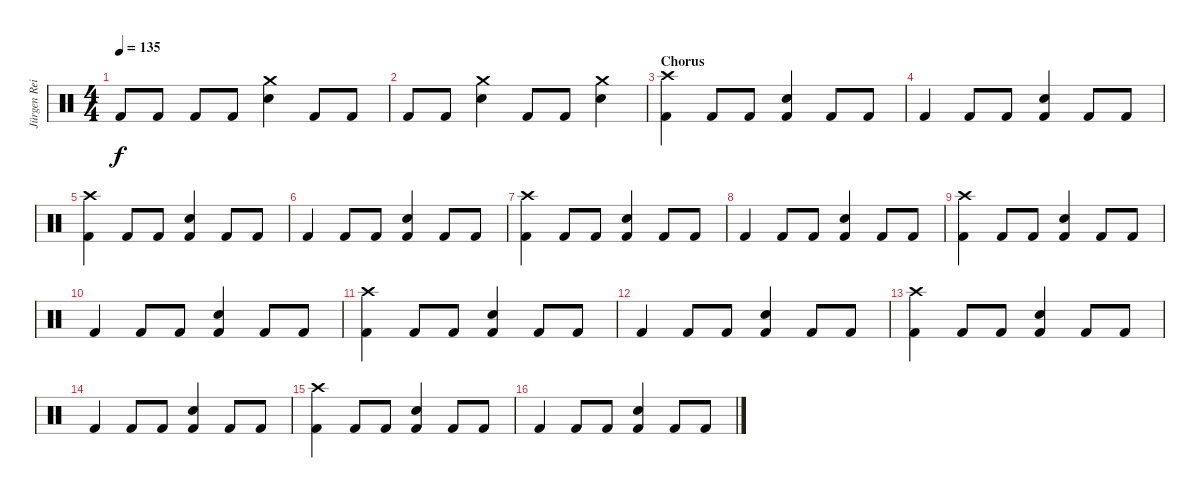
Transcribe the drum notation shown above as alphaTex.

\track ("Jürgen Reil [drums]" "Jürgen Rei") {instrument percussion}
\staff {score}
\articulation defaults
\ts (4 4)
\tempo 135
\clef neutral
\ks c "Kick (hit) 2".8{dy f} "Kick (hit) 2".8 "Kick (hit) 2".8 "Kick (hit) 2".8
("Crash medium (hit)" "Electric Snare (hit)").4 "Kick (hit) 2".8 "Kick (hit) 2".8 |
"Kick (hit) 2".8 "Kick (hit) 2".8 ("Crash medium (hit)" "Electric Snare (hit)").4 "Kick (hit) 2".8 "Kick (hit) 2".8 ("Crash medium (hit)" "Electric Snare (hit)").4 |
\section ("" "Chorus")
("Crash high (hit)" "Kick (hit) 2").4 "Kick (hit) 2".8 "Kick (hit) 2".8 ("Electric Snare (hit)" "Kick (hit) 2").4 "Kick (hit) 2".8 "Kick (hit) 2".8 |
"Kick (hit) 2".4 "Kick (hit) 2".8 "Kick (hit) 2".8 ("Electric Snare (hit)" "Kick (hit) 2").4 "Kick (hit) 2".8 "Kick (hit) 2".8 |
("Crash high (hit)" "Kick (hit) 2").4 "Kick (hit) 2".8 "Kick (hit) 2".8 ("Electric Snare (hit)" "Kick (hit) 2").4 "Kick (hit) 2".8 "Kick (hit) 2".8 |
"Kick (hit) 2".4 "Kick (hit) 2".8 "Kick (hit) 2".8 ("Electric Snare (hit)" "Kick (hit) 2").4 "Kick (hit) 2".8 "Kick (hit) 2".8 |
("Crash high (hit)" "Kick (hit) 2").4 "Kick (hit) 2".8 "Kick (hit) 2".8 ("Electric Snare (hit)" "Kick (hit) 2").4 "Kick (hit) 2".8 "Kick (hit) 2".8 |
"Kick (hit) 2".4 "Kick (hit) 2".8 "Kick (hit) 2".8 ("Electric Snare (hit)" "Kick (hit) 2").4 "Kick (hit) 2".8 "Kick (hit) 2".8 |
("Crash high (hit)" "Kick (hit) 2").4 "Kick (hit) 2".8 "Kick (hit) 2".8 ("Electric Snare (hit)" "Kick (hit) 2").4 "Kick (hit) 2".8 "Kick (hit) 2".8 |
"Kick (hit) 2".4 "Kick (hit) 2".8 "Kick (hit) 2".8 ("Electric Snare (hit)" "Kick (hit) 2").4 "Kick (hit) 2".8 "Kick (hit) 2".8 |
("Crash high (hit)" "Kick (hit) 2").4 "Kick (hit) 2".8 "Kick (hit) 2".8 ("Electric Snare (hit)" "Kick (hit) 2").4 "Kick (hit) 2".8 "Kick (hit) 2".8 |
"Kick (hit) 2".4 "Kick (hit) 2".8 "Kick (hit) 2".8 ("Electric Snare (hit)" "Kick (hit) 2").4 "Kick (hit) 2".8 "Kick (hit) 2".8 |
("Crash high (hit)" "Kick (hit) 2").4 "Kick (hit) 2".8 "Kick (hit) 2".8 ("Electric Snare (hit)" "Kick (hit) 2").4 "Kick (hit) 2".8 "Kick (hit) 2".8 |
"Kick (hit) 2".4 "Kick (hit) 2".8 "Kick (hit) 2".8 ("Electric Snare (hit)" "Kick (hit) 2").4 "Kick (hit) 2".8 "Kick (hit) 2".8 |
("Crash high (hit)" "Kick (hit) 2").4 "Kick (hit) 2".8 "Kick (hit) 2".8 ("Electric Snare (hit)" "Kick (hit) 2").4 "Kick (hit) 2".8 "Kick (hit) 2".8 |
"Kick (hit) 2".4 "Kick (hit) 2".8 "Kick (hit) 2".8 ("Electric Snare (hit)" "Kick (hit) 2").4 "Kick (hit) 2".8 "Kick (hit) 2".8
